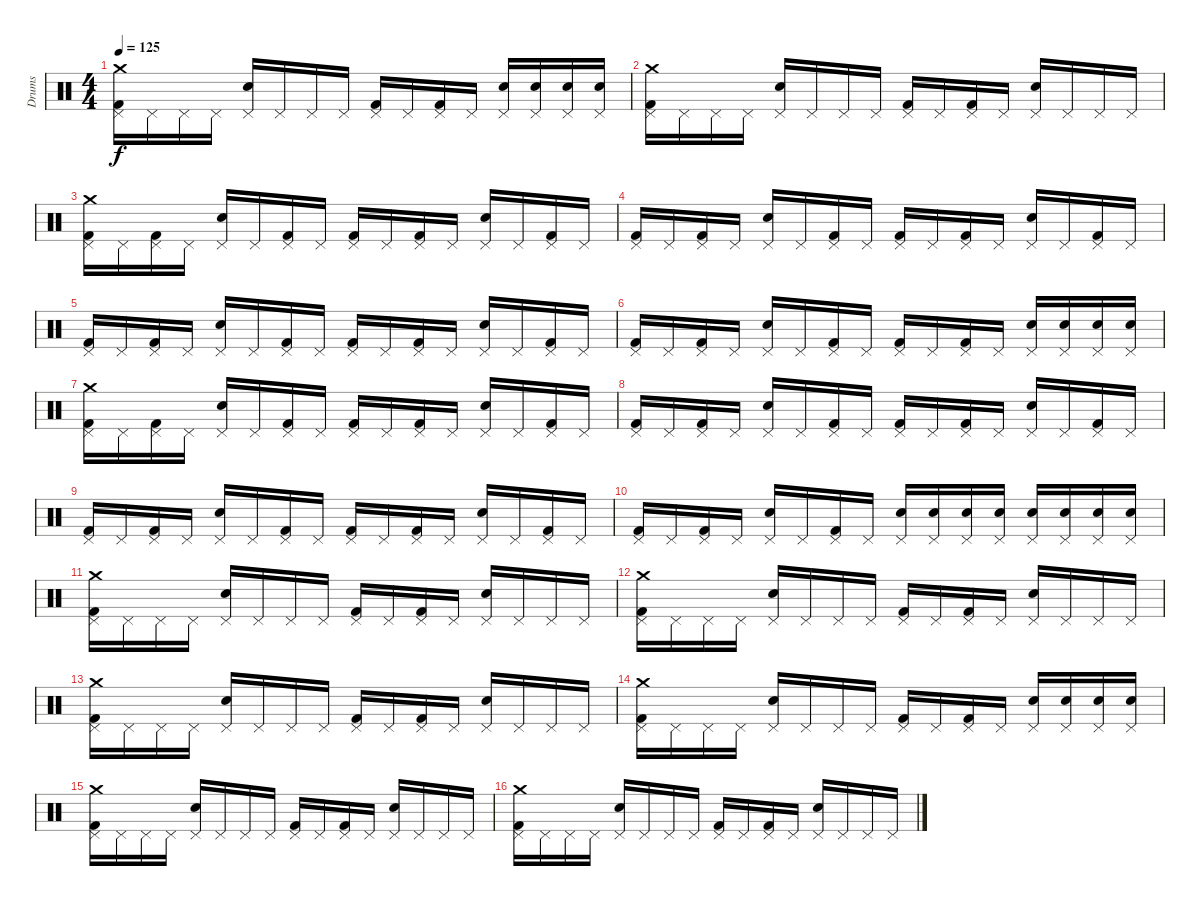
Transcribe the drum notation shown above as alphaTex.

\track ("Drums" "Drums") {instrument percussion}
\staff {score}
\articulation defaults
\ts (4 4)
\tempo 125
\clef neutral
\ks c
("Crash medium (hit)" "Kick (hit) 2" "Pedal Hi-Hat (hit)").16{dy f} "Pedal Hi-Hat (hit)".16 "Pedal Hi-Hat (hit)".16 "Pedal Hi-Hat (hit)".16 ("Snare (hit) 2" "Pedal Hi-Hat (hit)").16 "Pedal Hi-Hat (hit)".16 "Pedal Hi-Hat (hit)".16 "Pedal Hi-Hat (hit)".16 ("Kick (hit) 2" "Pedal Hi-Hat (hit)").16 "Pedal Hi-Hat (hit)".16 ("Kick (hit) 2" "Pedal Hi-Hat (hit)").16 "Pedal Hi-Hat (hit)".16 ("Snare (hit) 2" "Pedal Hi-Hat (hit)").16 ("Snare (hit) 2" "Pedal Hi-Hat (hit)").16 ("Snare (hit) 2" "Pedal Hi-Hat (hit)").16 ("Snare (hit) 2" "Pedal Hi-Hat (hit)").16 |
("Kick (hit) 2" "Crash medium (hit)" "Pedal Hi-Hat (hit)").16 "Pedal Hi-Hat (hit)".16 "Pedal Hi-Hat (hit)".16 "Pedal Hi-Hat (hit)".16 ("Snare (hit) 2" "Pedal Hi-Hat (hit)").16 "Pedal Hi-Hat (hit)".16 "Pedal Hi-Hat (hit)".16 "Pedal Hi-Hat (hit)".16 ("Kick (hit) 2" "Pedal Hi-Hat (hit)").16 "Pedal Hi-Hat (hit)".16 ("Kick (hit) 2" "Pedal Hi-Hat (hit)").16 "Pedal Hi-Hat (hit)".16 ("Snare (hit) 2" "Pedal Hi-Hat (hit)").16 "Pedal Hi-Hat (hit)".16 "Pedal Hi-Hat (hit)".16 "Pedal Hi-Hat (hit)".16 |
("Crash medium (hit)" "Kick (hit) 2" "Pedal Hi-Hat (hit)").16 "Pedal Hi-Hat (hit)".16 ("Kick (hit) 2" "Pedal Hi-Hat (hit)").16 "Pedal Hi-Hat (hit)".16 ("Snare (hit) 2" "Pedal Hi-Hat (hit)").16 "Pedal Hi-Hat (hit)".16 ("Kick (hit) 2" "Pedal Hi-Hat (hit)").16 "Pedal Hi-Hat (hit)".16 ("Kick (hit) 2" "Pedal Hi-Hat (hit)").16 "Pedal Hi-Hat (hit)".16 ("Kick (hit) 2" "Pedal Hi-Hat (hit)").16 "Pedal Hi-Hat (hit)".16 ("Snare (hit) 2" "Pedal Hi-Hat (hit)").16 "Pedal Hi-Hat (hit)".16 ("Kick (hit) 2" "Pedal Hi-Hat (hit)").16 "Pedal Hi-Hat (hit)".16 |
("Pedal Hi-Hat (hit)" "Kick (hit) 2").16 "Pedal Hi-Hat (hit)".16 ("Pedal Hi-Hat (hit)" "Kick (hit) 2").16 "Pedal Hi-Hat (hit)".16 ("Pedal Hi-Hat (hit)" "Snare (hit) 2").16 "Pedal Hi-Hat (hit)".16 ("Pedal Hi-Hat (hit)" "Kick (hit) 2").16 "Pedal Hi-Hat (hit)".16 ("Pedal Hi-Hat (hit)" "Kick (hit) 2").16 "Pedal Hi-Hat (hit)".16 ("Pedal Hi-Hat (hit)" "Kick (hit) 2").16 "Pedal Hi-Hat (hit)".16 ("Pedal Hi-Hat (hit)" "Snare (hit) 2").16 "Pedal Hi-Hat (hit)".16 ("Pedal Hi-Hat (hit)" "Kick (hit) 2").16 "Pedal Hi-Hat (hit)".16 |
("Kick (hit) 2" "Pedal Hi-Hat (hit)").16 "Pedal Hi-Hat (hit)".16 ("Kick (hit) 2" "Pedal Hi-Hat (hit)").16 "Pedal Hi-Hat (hit)".16 ("Snare (hit) 2" "Pedal Hi-Hat (hit)").16 "Pedal Hi-Hat (hit)".16 ("Kick (hit) 2" "Pedal Hi-Hat (hit)").16 "Pedal Hi-Hat (hit)".16 ("Kick (hit) 2" "Pedal Hi-Hat (hit)").16 "Pedal Hi-Hat (hit)".16 ("Kick (hit) 2" "Pedal Hi-Hat (hit)").16 "Pedal Hi-Hat (hit)".16 ("Snare (hit) 2" "Pedal Hi-Hat (hit)").16 "Pedal Hi-Hat (hit)".16 ("Kick (hit) 2" "Pedal Hi-Hat (hit)").16 "Pedal Hi-Hat (hit)".16 |
("Pedal Hi-Hat (hit)" "Kick (hit) 2").16 "Pedal Hi-Hat (hit)".16 ("Pedal Hi-Hat (hit)" "Kick (hit) 2").16 "Pedal Hi-Hat (hit)".16 ("Pedal Hi-Hat (hit)" "Snare (hit) 2").16 "Pedal Hi-Hat (hit)".16 ("Pedal Hi-Hat (hit)" "Kick (hit) 2").16 "Pedal Hi-Hat (hit)".16 ("Pedal Hi-Hat (hit)" "Kick (hit) 2").16 "Pedal Hi-Hat (hit)".16 ("Pedal Hi-Hat (hit)" "Kick (hit) 2").16 "Pedal Hi-Hat (hit)".16 ("Pedal Hi-Hat (hit)" "Snare (hit) 2").16 ("Pedal Hi-Hat (hit)" "Snare (hit) 2").16 ("Pedal Hi-Hat (hit)" "Snare (hit) 2").16 ("Pedal Hi-Hat (hit)" "Snare (hit) 2").16 |
("Pedal Hi-Hat (hit)" "Crash medium (hit)" "Kick (hit) 2").16 "Pedal Hi-Hat (hit)".16 ("Pedal Hi-Hat (hit)" "Kick (hit) 2").16 "Pedal Hi-Hat (hit)".16 ("Pedal Hi-Hat (hit)" "Snare (hit) 2").16 "Pedal Hi-Hat (hit)".16 ("Pedal Hi-Hat (hit)" "Kick (hit) 2").16 "Pedal Hi-Hat (hit)".16 ("Pedal Hi-Hat (hit)" "Kick (hit) 2").16 "Pedal Hi-Hat (hit)".16 ("Pedal Hi-Hat (hit)" "Kick (hit) 2").16 "Pedal Hi-Hat (hit)".16 ("Pedal Hi-Hat (hit)" "Snare (hit) 2").16 "Pedal Hi-Hat (hit)".16 ("Pedal Hi-Hat (hit)" "Kick (hit) 2").16 "Pedal Hi-Hat (hit)".16 |
("Kick (hit) 2" "Pedal Hi-Hat (hit)").16 "Pedal Hi-Hat (hit)".16 ("Kick (hit) 2" "Pedal Hi-Hat (hit)").16 "Pedal Hi-Hat (hit)".16 ("Snare (hit) 2" "Pedal Hi-Hat (hit)").16 "Pedal Hi-Hat (hit)".16 ("Kick (hit) 2" "Pedal Hi-Hat (hit)").16 "Pedal Hi-Hat (hit)".16 ("Kick (hit) 2" "Pedal Hi-Hat (hit)").16 "Pedal Hi-Hat (hit)".16 ("Kick (hit) 2" "Pedal Hi-Hat (hit)").16 "Pedal Hi-Hat (hit)".16 ("Snare (hit) 2" "Pedal Hi-Hat (hit)").16 "Pedal Hi-Hat (hit)".16 ("Kick (hit) 2" "Pedal Hi-Hat (hit)").16 "Pedal Hi-Hat (hit)".16 |
("Kick (hit) 2" "Pedal Hi-Hat (hit)").16 "Pedal Hi-Hat (hit)".16 ("Kick (hit) 2" "Pedal Hi-Hat (hit)").16 "Pedal Hi-Hat (hit)".16 ("Snare (hit) 2" "Pedal Hi-Hat (hit)").16 "Pedal Hi-Hat (hit)".16 ("Kick (hit) 2" "Pedal Hi-Hat (hit)").16 "Pedal Hi-Hat (hit)".16 ("Kick (hit) 2" "Pedal Hi-Hat (hit)").16 "Pedal Hi-Hat (hit)".16 ("Kick (hit) 2" "Pedal Hi-Hat (hit)").16 "Pedal Hi-Hat (hit)".16 ("Snare (hit) 2" "Pedal Hi-Hat (hit)").16 "Pedal Hi-Hat (hit)".16 ("Kick (hit) 2" "Pedal Hi-Hat (hit)").16 "Pedal Hi-Hat (hit)".16 |
("Pedal Hi-Hat (hit)" "Kick (hit) 2").16 "Pedal Hi-Hat (hit)".16 ("Pedal Hi-Hat (hit)" "Kick (hit) 2").16 "Pedal Hi-Hat (hit)".16 ("Pedal Hi-Hat (hit)" "Snare (hit) 2").16 "Pedal Hi-Hat (hit)".16 ("Pedal Hi-Hat (hit)" "Kick (hit) 2").16 "Pedal Hi-Hat (hit)".16 ("Snare (hit) 2" "Pedal Hi-Hat (hit)").16 ("Snare (hit) 2" "Pedal Hi-Hat (hit)").16 ("Snare (hit) 2" "Pedal Hi-Hat (hit)").16 ("Snare (hit) 2" "Pedal Hi-Hat (hit)").16 ("Snare (hit) 2" "Pedal Hi-Hat (hit)").16 ("Snare (hit) 2" "Pedal Hi-Hat (hit)").16 ("Snare (hit) 2" "Pedal Hi-Hat (hit)").16 ("Snare (hit) 2" "Pedal Hi-Hat (hit)").16 |
("Crash medium (hit)" "Pedal Hi-Hat (hit)" "Kick (hit) 2").16 "Pedal Hi-Hat (hit)".16 "Pedal Hi-Hat (hit)".16 "Pedal Hi-Hat (hit)".16 ("Pedal Hi-Hat (hit)" "Snare (hit) 2").16 "Pedal Hi-Hat (hit)".16 "Pedal Hi-Hat (hit)".16 "Pedal Hi-Hat (hit)".16 ("Pedal Hi-Hat (hit)" "Kick (hit) 2").16 "Pedal Hi-Hat (hit)".16 ("Pedal Hi-Hat (hit)" "Kick (hit) 2").16 "Pedal Hi-Hat (hit)".16 ("Pedal Hi-Hat (hit)" "Snare (hit) 2").16 "Pedal Hi-Hat (hit)".16 "Pedal Hi-Hat (hit)".16 "Pedal Hi-Hat (hit)".16 |
("Pedal Hi-Hat (hit)" "Crash medium (hit)" "Kick (hit) 2").16 "Pedal Hi-Hat (hit)".16 "Pedal Hi-Hat (hit)".16 "Pedal Hi-Hat (hit)".16 ("Pedal Hi-Hat (hit)" "Snare (hit) 2").16 "Pedal Hi-Hat (hit)".16 "Pedal Hi-Hat (hit)".16 "Pedal Hi-Hat (hit)".16 ("Pedal Hi-Hat (hit)" "Kick (hit) 2").16 "Pedal Hi-Hat (hit)".16 ("Pedal Hi-Hat (hit)" "Kick (hit) 2").16 "Pedal Hi-Hat (hit)".16 ("Pedal Hi-Hat (hit)" "Snare (hit) 2").16 "Pedal Hi-Hat (hit)".16 "Pedal Hi-Hat (hit)".16 "Pedal Hi-Hat (hit)".16 |
("Kick (hit) 2" "Crash medium (hit)" "Pedal Hi-Hat (hit)").16 "Pedal Hi-Hat (hit)".16 "Pedal Hi-Hat (hit)".16 "Pedal Hi-Hat (hit)".16 ("Snare (hit) 2" "Pedal Hi-Hat (hit)").16 "Pedal Hi-Hat (hit)".16 "Pedal Hi-Hat (hit)".16 "Pedal Hi-Hat (hit)".16 ("Kick (hit) 2" "Pedal Hi-Hat (hit)").16 "Pedal Hi-Hat (hit)".16 ("Kick (hit) 2" "Pedal Hi-Hat (hit)").16 "Pedal Hi-Hat (hit)".16 ("Snare (hit) 2" "Pedal Hi-Hat (hit)").16 "Pedal Hi-Hat (hit)".16 "Pedal Hi-Hat (hit)".16 "Pedal Hi-Hat (hit)".16 |
("Kick (hit) 2" "Crash medium (hit)" "Pedal Hi-Hat (hit)").16 "Pedal Hi-Hat (hit)".16 "Pedal Hi-Hat (hit)".16 "Pedal Hi-Hat (hit)".16 ("Snare (hit) 2" "Pedal Hi-Hat (hit)").16 "Pedal Hi-Hat (hit)".16 "Pedal Hi-Hat (hit)".16 "Pedal Hi-Hat (hit)".16 ("Kick (hit) 2" "Pedal Hi-Hat (hit)").16 "Pedal Hi-Hat (hit)".16 ("Kick (hit) 2" "Pedal Hi-Hat (hit)").16 "Pedal Hi-Hat (hit)".16 ("Snare (hit) 2" "Pedal Hi-Hat (hit)").16 ("Snare (hit) 2" "Pedal Hi-Hat (hit)").16 ("Snare (hit) 2" "Pedal Hi-Hat (hit)").16 ("Snare (hit) 2" "Pedal Hi-Hat (hit)").16 |
("Kick (hit) 2" "Crash medium (hit)" "Pedal Hi-Hat (hit)").16 "Pedal Hi-Hat (hit)".16 "Pedal Hi-Hat (hit)".16 "Pedal Hi-Hat (hit)".16 ("Snare (hit) 2" "Pedal Hi-Hat (hit)").16 "Pedal Hi-Hat (hit)".16 "Pedal Hi-Hat (hit)".16 "Pedal Hi-Hat (hit)".16 ("Kick (hit) 2" "Pedal Hi-Hat (hit)").16 "Pedal Hi-Hat (hit)".16 ("Kick (hit) 2" "Pedal Hi-Hat (hit)").16 "Pedal Hi-Hat (hit)".16 ("Snare (hit) 2" "Pedal Hi-Hat (hit)").16 "Pedal Hi-Hat (hit)".16 "Pedal Hi-Hat (hit)".16 "Pedal Hi-Hat (hit)".16 |
("Crash medium (hit)" "Pedal Hi-Hat (hit)" "Kick (hit) 2").16 "Pedal Hi-Hat (hit)".16 "Pedal Hi-Hat (hit)".16 "Pedal Hi-Hat (hit)".16 ("Pedal Hi-Hat (hit)" "Snare (hit) 2").16 "Pedal Hi-Hat (hit)".16 "Pedal Hi-Hat (hit)".16 "Pedal Hi-Hat (hit)".16 ("Pedal Hi-Hat (hit)" "Kick (hit) 2").16 "Pedal Hi-Hat (hit)".16 ("Pedal Hi-Hat (hit)" "Kick (hit) 2").16 "Pedal Hi-Hat (hit)".16 ("Pedal Hi-Hat (hit)" "Snare (hit) 2").16 "Pedal Hi-Hat (hit)".16 "Pedal Hi-Hat (hit)".16 "Pedal Hi-Hat (hit)".16
